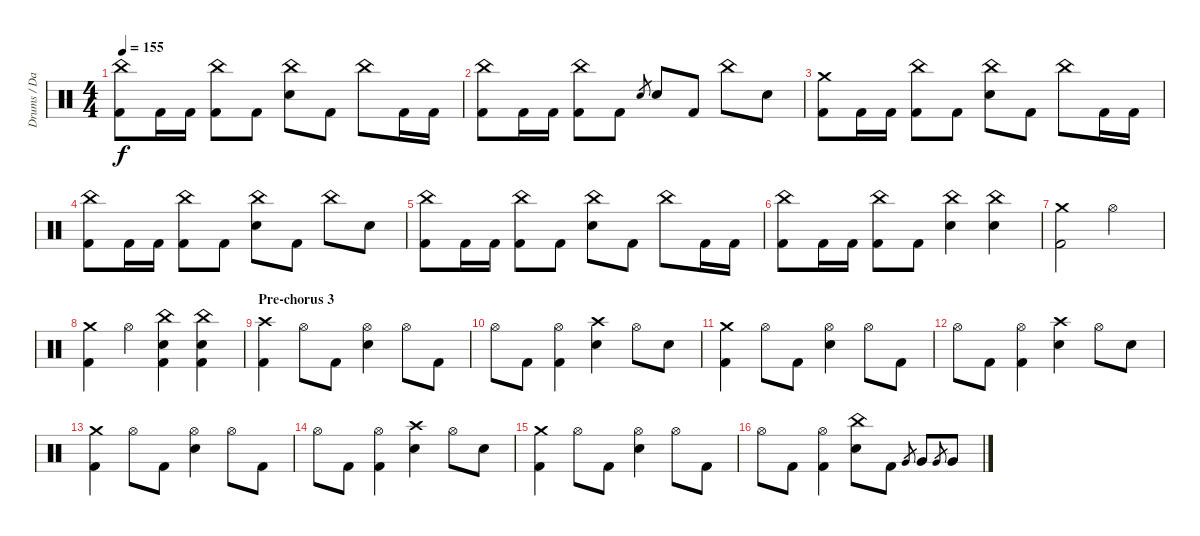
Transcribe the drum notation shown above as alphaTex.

\track ("Drums / David" "Drums / Da") {instrument percussion}
\staff {score}
\articulation defaults
\ts (4 4)
\tempo 155
\clef neutral
\ks c
("China (hit)" "Kick (hit) 2").8{dy f} "Kick (hit) 2".16 "Kick (hit) 2".16 ("China (hit)" "Kick (hit) 2").8 "Kick (hit) 2".8 ("China (hit)" "Electric Snare (hit)").8 "Kick (hit) 2".8 "China (hit)".8 "Kick (hit) 2".16 "Kick (hit) 2".16 |
("China (hit)" "Kick (hit) 2").8 "Kick (hit) 2".16 "Kick (hit) 2".16 ("China (hit)" "Kick (hit) 2").8 "Kick (hit) 2".8 "Electric Snare (hit)".8{gr} "Electric Snare (hit)".8 "Kick (hit) 2".8 "China (hit)".8 "Electric Snare (hit)".8 |
("Crash medium (hit)" "Kick (hit) 2").8 "Kick (hit) 2".16 "Kick (hit) 2".16 ("China (hit)" "Kick (hit) 2").8 "Kick (hit) 2".8 ("China (hit)" "Electric Snare (hit)").8 "Kick (hit) 2".8 "China (hit)".8 "Kick (hit) 2".16 "Kick (hit) 2".16 |
("China (hit)" "Kick (hit) 2").8 "Kick (hit) 2".16 "Kick (hit) 2".16 ("China (hit)" "Kick (hit) 2").8 "Kick (hit) 2".8 ("China (hit)" "Electric Snare (hit)").8 "Kick (hit) 2".8 "China (hit)".8 "Electric Snare (hit)".8 |
("China (hit)" "Kick (hit) 2").8 "Kick (hit) 2".16 "Kick (hit) 2".16 ("China (hit)" "Kick (hit) 2").8 "Kick (hit) 2".8 ("China (hit)" "Electric Snare (hit)").8 "Kick (hit) 2".8 "China (hit)".8 "Kick (hit) 2".16 "Kick (hit) 2".16 |
("China (hit)" "Kick (hit) 2").8 "Kick (hit) 2".16 "Kick (hit) 2".16 ("China (hit)" "Kick (hit) 2").8 "Kick (hit) 2".8 ("China (hit)" "Electric Snare (hit)").4 ("China (hit)" "Electric Snare (hit)").4 |
("Crash medium (hit)" "Kick (hit) 2").2 "Hi-Hat (open)".2 |
("Crash medium (hit)" "Kick (hit) 2").4 "Hi-Hat (open)".4 ("China (hit)" "Electric Snare (hit)" "Kick (hit) 2").4 ("China (hit)" "Electric Snare (hit)" "Kick (hit) 2").4 |
\section ("" "Pre-chorus 3")
("Crash high (hit)" "Kick (hit) 2").4 "Hi-Hat (open)".8 "Kick (hit) 2".8 ("Hi-Hat (open)" "Electric Snare (hit)").4 "Hi-Hat (open)".8 "Kick (hit) 2".8 |
"Hi-Hat (open)".8 "Kick (hit) 2".8 ("Hi-Hat (open)" "Kick (hit) 2").4 ("Crash high (hit)" "Electric Snare (hit)").4 "Hi-Hat (open)".8 "Electric Snare (hit)".8 |
("Crash medium (hit)" "Kick (hit) 2").4 "Hi-Hat (open)".8 "Kick (hit) 2".8 ("Hi-Hat (open)" "Electric Snare (hit)").4 "Hi-Hat (open)".8 "Kick (hit) 2".8 |
"Hi-Hat (open)".8 "Kick (hit) 2".8 ("Hi-Hat (open)" "Kick (hit) 2").4 ("Crash high (hit)" "Electric Snare (hit)").4 "Hi-Hat (open)".8 "Electric Snare (hit)".8 |
("Crash medium (hit)" "Kick (hit) 2").4 "Hi-Hat (open)".8 "Kick (hit) 2".8 ("Hi-Hat (open)" "Electric Snare (hit)").4 "Hi-Hat (open)".8 "Kick (hit) 2".8 |
"Hi-Hat (open)".8 "Kick (hit) 2".8 ("Hi-Hat (open)" "Kick (hit) 2").4 ("Crash high (hit)" "Electric Snare (hit)").4 "Hi-Hat (open)".8 "Electric Snare (hit)".8 |
("Crash medium (hit)" "Kick (hit) 2").4 "Hi-Hat (open)".8 "Kick (hit) 2".8 ("Hi-Hat (open)" "Electric Snare (hit)").4 "Hi-Hat (open)".8 "Kick (hit) 2".8 |
"Hi-Hat (open)".8 "Kick (hit) 2".8 ("Hi-Hat (open)" "Kick (hit) 2").4 ("China (hit)" "Electric Snare (hit)").8 "Kick (hit) 2".8 "Very Low Tom (hit)".8{gr} "Very Low Tom (hit)".8 "Very Low Tom (hit)".8{gr} "Very Low Tom (hit)".8
